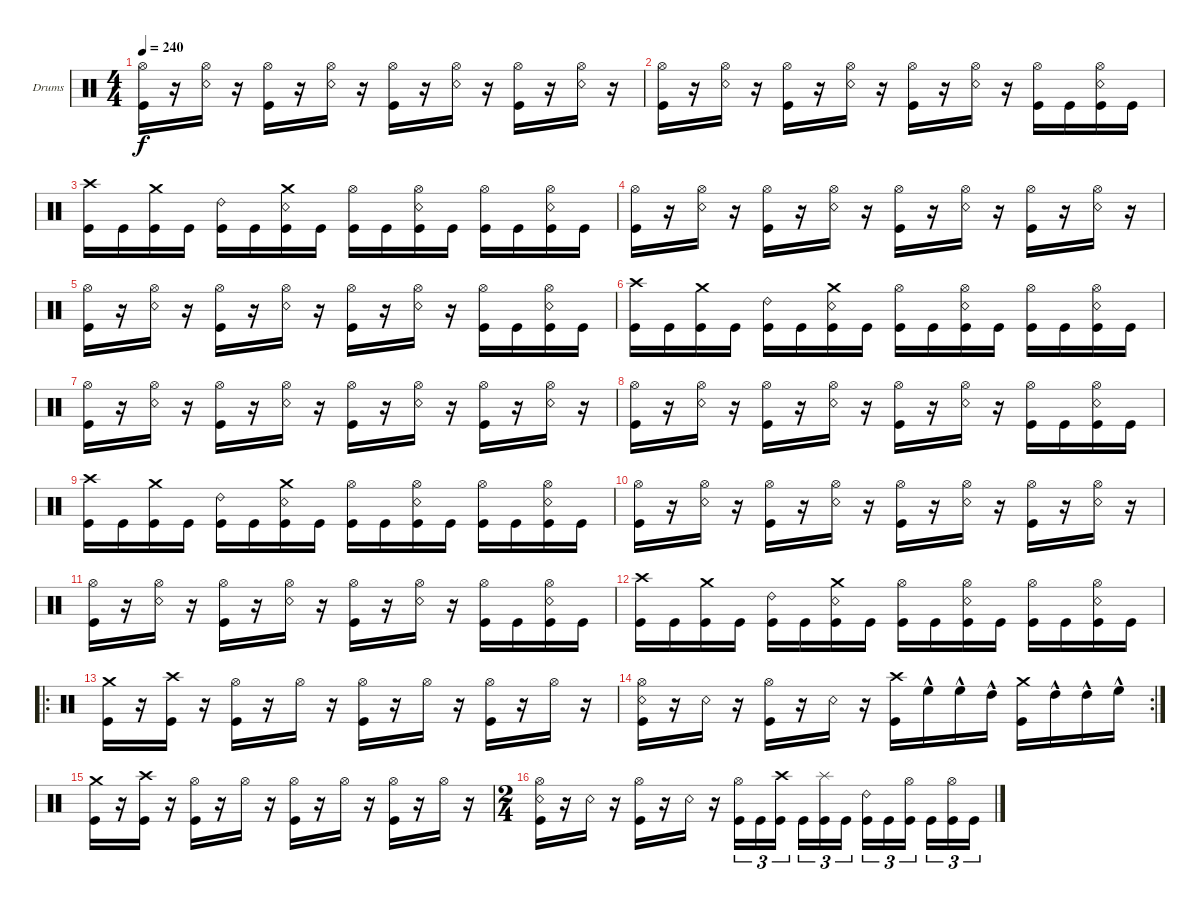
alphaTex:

\bracketExtendMode groupsimilarinstruments
\firstSystemTrackNameOrientation horizontal
\otherSystemsTrackNameOrientation horizontal
\track ("Drumkit" "Drums") {instrument percussion}
\staff {score}
\articulation defaults
\ts (4 4)
\tempo 240
\clef neutral
\ks c
("Hi-Hat (open)" "Kick (hit)").16{dy f} r.16 ("Hi-Hat (open)" "Snare (rim shot)").16 r.16 ("Hi-Hat (open)" "Kick (hit)").16 r.16 ("Hi-Hat (open)" "Snare (rim shot)").16 r.16 ("Hi-Hat (open)" "Kick (hit)").16 r.16 ("Hi-Hat (open)" "Snare (rim shot)").16 r.16 ("Hi-Hat (open)" "Kick (hit)").16 r.16 ("Hi-Hat (open)" "Snare (rim shot)").16 r.16 |
("Hi-Hat (open)" "Kick (hit)").16 r.16 ("Hi-Hat (open)" "Snare (rim shot)").16 r.16 ("Hi-Hat (open)" "Kick (hit)").16 r.16 ("Hi-Hat (open)" "Snare (rim shot)").16 r.16 ("Hi-Hat (open)" "Kick (hit)").16 r.16 ("Hi-Hat (open)" "Snare (rim shot)").16 r.16 ("Hi-Hat (open)" "Kick (hit)").16 "Kick (hit)".16 ("Hi-Hat (open)" "Snare (rim shot)" "Kick (hit)").16 "Kick (hit)".16 |
("Kick (hit)" "Crash high (hit)").16 "Kick (hit)".16 ("Crash medium (hit)" "Kick (hit)").16 "Kick (hit)".16 ("Kick (hit)" "Ride (bell) 2").16 "Kick (hit)".16 ("Snare (rim shot)" "Crash medium (hit)" "Kick (hit)").16 "Kick (hit)".16 ("Hi-Hat (open)" "Kick (hit)").16 "Kick (hit)".16 ("Hi-Hat (open)" "Snare (rim shot)" "Kick (hit)").16 "Kick (hit)".16 ("Hi-Hat (open)" "Kick (hit)").16 "Kick (hit)".16 ("Hi-Hat (open)" "Snare (rim shot)" "Kick (hit)").16 "Kick (hit)".16 |
("Hi-Hat (open)" "Kick (hit)").16 r.16 ("Hi-Hat (open)" "Snare (rim shot)").16 r.16 ("Hi-Hat (open)" "Kick (hit)").16 r.16 ("Hi-Hat (open)" "Snare (rim shot)").16 r.16 ("Hi-Hat (open)" "Kick (hit)").16 r.16 ("Hi-Hat (open)" "Snare (rim shot)").16 r.16 ("Hi-Hat (open)" "Kick (hit)").16 r.16 ("Hi-Hat (open)" "Snare (rim shot)").16 r.16 |
("Hi-Hat (open)" "Kick (hit)").16 r.16 ("Hi-Hat (open)" "Snare (rim shot)").16 r.16 ("Hi-Hat (open)" "Kick (hit)").16 r.16 ("Hi-Hat (open)" "Snare (rim shot)").16 r.16 ("Hi-Hat (open)" "Kick (hit)").16 r.16 ("Hi-Hat (open)" "Snare (rim shot)").16 r.16 ("Hi-Hat (open)" "Kick (hit)").16 "Kick (hit)".16 ("Hi-Hat (open)" "Snare (rim shot)" "Kick (hit)").16 "Kick (hit)".16 |
("Kick (hit)" "Crash high (hit)").16 "Kick (hit)".16 ("Crash medium (hit)" "Kick (hit)").16 "Kick (hit)".16 ("Kick (hit)" "Ride (bell) 2").16 "Kick (hit)".16 ("Snare (rim shot)" "Crash medium (hit)" "Kick (hit)").16 "Kick (hit)".16 ("Hi-Hat (open)" "Kick (hit)").16 "Kick (hit)".16 ("Hi-Hat (open)" "Snare (rim shot)" "Kick (hit)").16 "Kick (hit)".16 ("Hi-Hat (open)" "Kick (hit)").16 "Kick (hit)".16 ("Hi-Hat (open)" "Snare (rim shot)" "Kick (hit)").16 "Kick (hit)".16 |
("Hi-Hat (open)" "Kick (hit)").16 r.16 ("Hi-Hat (open)" "Snare (rim shot)").16 r.16 ("Hi-Hat (open)" "Kick (hit)").16 r.16 ("Hi-Hat (open)" "Snare (rim shot)").16 r.16 ("Hi-Hat (open)" "Kick (hit)").16 r.16 ("Hi-Hat (open)" "Snare (rim shot)").16 r.16 ("Hi-Hat (open)" "Kick (hit)").16 r.16 ("Hi-Hat (open)" "Snare (rim shot)").16 r.16 |
("Hi-Hat (open)" "Kick (hit)").16 r.16 ("Hi-Hat (open)" "Snare (rim shot)").16 r.16 ("Hi-Hat (open)" "Kick (hit)").16 r.16 ("Hi-Hat (open)" "Snare (rim shot)").16 r.16 ("Hi-Hat (open)" "Kick (hit)").16 r.16 ("Hi-Hat (open)" "Snare (rim shot)").16 r.16 ("Hi-Hat (open)" "Kick (hit)").16 "Kick (hit)".16 ("Hi-Hat (open)" "Snare (rim shot)" "Kick (hit)").16 "Kick (hit)".16 |
("Kick (hit)" "Crash high (hit)").16 "Kick (hit)".16 ("Crash medium (hit)" "Kick (hit)").16 "Kick (hit)".16 ("Kick (hit)" "Ride (bell) 2").16 "Kick (hit)".16 ("Snare (rim shot)" "Crash medium (hit)" "Kick (hit)").16 "Kick (hit)".16 ("Hi-Hat (open)" "Kick (hit)").16 "Kick (hit)".16 ("Hi-Hat (open)" "Snare (rim shot)" "Kick (hit)").16 "Kick (hit)".16 ("Hi-Hat (open)" "Kick (hit)").16 "Kick (hit)".16 ("Hi-Hat (open)" "Snare (rim shot)" "Kick (hit)").16 "Kick (hit)".16 |
("Hi-Hat (open)" "Kick (hit)").16 r.16 ("Hi-Hat (open)" "Snare (rim shot)").16 r.16 ("Hi-Hat (open)" "Kick (hit)").16 r.16 ("Hi-Hat (open)" "Snare (rim shot)").16 r.16 ("Hi-Hat (open)" "Kick (hit)").16 r.16 ("Hi-Hat (open)" "Snare (rim shot)").16 r.16 ("Hi-Hat (open)" "Kick (hit)").16 r.16 ("Hi-Hat (open)" "Snare (rim shot)").16 r.16 |
("Hi-Hat (open)" "Kick (hit)").16 r.16 ("Hi-Hat (open)" "Snare (rim shot)").16 r.16 ("Hi-Hat (open)" "Kick (hit)").16 r.16 ("Hi-Hat (open)" "Snare (rim shot)").16 r.16 ("Hi-Hat (open)" "Kick (hit)").16 r.16 ("Hi-Hat (open)" "Snare (rim shot)").16 r.16 ("Hi-Hat (open)" "Kick (hit)").16 "Kick (hit)".16 ("Hi-Hat (open)" "Snare (rim shot)" "Kick (hit)").16 "Kick (hit)".16 |
("Kick (hit)" "Crash high (hit)").16 "Kick (hit)".16 ("Crash medium (hit)" "Kick (hit)").16 "Kick (hit)".16 ("Kick (hit)" "Ride (bell) 2").16 "Kick (hit)".16 ("Snare (rim shot)" "Crash medium (hit)" "Kick (hit)").16 "Kick (hit)".16 ("Hi-Hat (open)" "Kick (hit)").16 "Kick (hit)".16 ("Hi-Hat (open)" "Snare (rim shot)" "Kick (hit)").16 "Kick (hit)".16 ("Hi-Hat (open)" "Kick (hit)").16 "Kick (hit)".16 ("Hi-Hat (open)" "Snare (rim shot)" "Kick (hit)").16 "Kick (hit)".16 |
\ro
("Crash medium (hit)" "Kick (hit)").16 r.16 ("Crash high (hit)" "Kick (hit)").16 r.16 ("Hi-Hat (open)" "Kick (hit)").16 r.16 "Hi-Hat (open)".16 r.16 ("Hi-Hat (open)" "Kick (hit)").16 r.16 "Hi-Hat (open)".16 r.16 ("Hi-Hat (open)" "Kick (hit)").16 r.16 "Hi-Hat (open)".16 r.16 |
\rc 2
("Hi-Hat (open)" "Snare (rim shot)" "Kick (hit)").16 r.16 "Snare (rim shot)".16 r.16 ("Hi-Hat (open)" "Kick (hit)").16 r.16 "Snare (rim shot)".16 r.16 ("Crash high (hit)" "Kick (hit)").16 "High Floor Tom (hit)"{hac}.16 "High Floor Tom (hit)"{hac}.16 "High Tom (hit)"{hac}.16 ("Crash medium (hit)" "Kick (hit)").16 "High Tom (hit)"{hac}.16 "High Tom (hit)"{hac}.16 "High Floor Tom (hit)"{hac}.16 |
("Crash medium (hit)" "Kick (hit)").16 r.16 ("Crash high (hit)" "Kick (hit)").16 r.16 ("Hi-Hat (open)" "Kick (hit)").16 r.16 "Hi-Hat (open)".16 r.16 ("Hi-Hat (open)" "Kick (hit)").16 r.16 "Hi-Hat (open)".16 r.16 ("Hi-Hat (open)" "Kick (hit)").16 r.16 "Hi-Hat (open)".16 r.16 |
\ts (2 4)
("Hi-Hat (open)" "Snare (rim shot)" "Kick (hit)").16 r.16 "Snare (rim shot)".16 r.16 ("Hi-Hat (open)" "Kick (hit)").16 r.16 "Snare (rim shot)".16 r.16 ("Kick (hit)" "Hi-Hat (open)").16{tu (3 2)} "Kick (hit)".16{tu (3 2)} ("Kick (hit)" "Crash high (hit)").16{tu (3 2)} "Kick (hit)".16{tu (3 2)} ("Kick (hit)" "Splash (hit)").16{tu (3 2)} "Kick (hit)".16{tu (3 2)} ("Kick (hit)" "Ride (bell) 2").16{tu (3 2)} "Kick (hit)".16{tu (3 2)} ("Kick (hit)" "Hi-Hat (open)").16{tu (3 2)} "Kick (hit)".16{tu (3 2)} ("Kick (hit)" "Hi-Hat (open)").16{tu (3 2)} "Kick (hit)".16{tu (3 2)}
